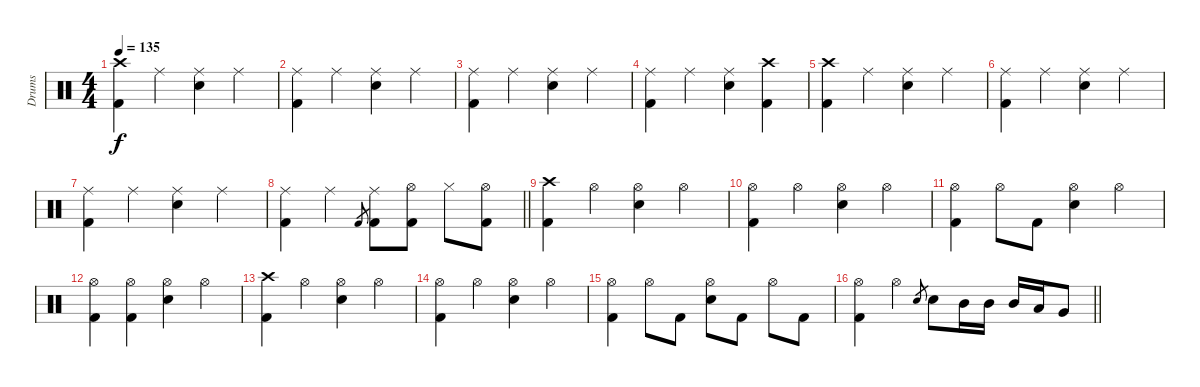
\track ("Drums" "Drums") {instrument percussion}
\staff {score}
\articulation defaults
\ts (4 4)
\tempo 135
\clef neutral
\ks c
("Crash high (hit)" "Kick (hit) 2").4{dy f} "Ride (middle)".4 ("Ride (middle)" "Electric Snare (hit)").4 "Ride (middle)".4 |
("Ride (middle)" "Kick (hit) 2").4 "Ride (middle)".4 ("Ride (middle)" "Electric Snare (hit)").4 "Ride (middle)".4 |
("Ride (middle)" "Kick (hit) 2").4 "Ride (middle)".4 ("Ride (middle)" "Electric Snare (hit)").4 "Ride (middle)".4 |
("Ride (middle)" "Kick (hit) 2").4 "Ride (middle)".4 ("Ride (middle)" "Electric Snare (hit)").4 ("Crash high (hit)" "Kick (hit) 2").4 |
("Crash high (hit)" "Kick (hit) 2").4 "Ride (middle)".4 ("Ride (middle)" "Electric Snare (hit)").4 "Ride (middle)".4 |
("Ride (middle)" "Kick (hit) 2").4 "Ride (middle)".4 ("Ride (middle)" "Electric Snare (hit)").4 "Ride (middle)".4 |
("Ride (middle)" "Kick (hit) 2").4 "Ride (middle)".4 ("Ride (middle)" "Electric Snare (hit)").4 "Ride (middle)".4 |
\barLineRight lightlight
("Ride (middle)" "Kick (hit) 2").4 "Ride (middle)".4 "Kick (hit) 2".8{gr} ("Ride (middle)" "Kick (hit) 2").8 ("Hi-Hat (open)" "Kick (hit) 2").8 "Hi-Hat (closed)".8 ("Hi-Hat (open)" "Kick (hit) 2").8 |
("Crash high (hit)" "Kick (hit) 2").4 "Hi-Hat (open)".4 ("Hi-Hat (open)" "Electric Snare (hit)").4 "Hi-Hat (open)".4 |
("Hi-Hat (open)" "Kick (hit) 2").4 "Hi-Hat (open)".4 ("Hi-Hat (open)" "Electric Snare (hit)").4 "Hi-Hat (open)".4 |
("Hi-Hat (open)" "Kick (hit) 2").4 "Hi-Hat (open)".8 "Kick (hit) 2".8 ("Hi-Hat (open)" "Electric Snare (hit)").4 "Hi-Hat (open)".4 |
("Hi-Hat (open)" "Kick (hit) 2").4 ("Hi-Hat (open)" "Kick (hit) 2").4 ("Hi-Hat (open)" "Electric Snare (hit)").4 "Hi-Hat (open)".4 |
("Crash high (hit)" "Kick (hit) 2").4 "Hi-Hat (open)".4 ("Hi-Hat (open)" "Electric Snare (hit)").4 "Hi-Hat (open)".4 |
("Hi-Hat (open)" "Kick (hit) 2").4 "Hi-Hat (open)".4 ("Hi-Hat (open)" "Electric Snare (hit)").4 "Hi-Hat (open)".4 |
("Hi-Hat (open)" "Kick (hit) 2").4 "Hi-Hat (open)".8 "Kick (hit) 2".8 ("Hi-Hat (open)" "Electric Snare (hit)").8 "Kick (hit) 2".8 "Hi-Hat (open)".8 "Kick (hit) 2".8 |
\barLineRight lightlight
("Hi-Hat (open)" "Kick (hit) 2").4 "Hi-Hat (open)".4 "Electric Snare (hit)".8{gr} "Electric Snare (hit)".8 "Mid Tom (hit)".16 "Mid Tom (hit)".16 "Mid Tom (hit)".16 "Low Tom (hit)".16 "Very Low Tom (hit)".8
